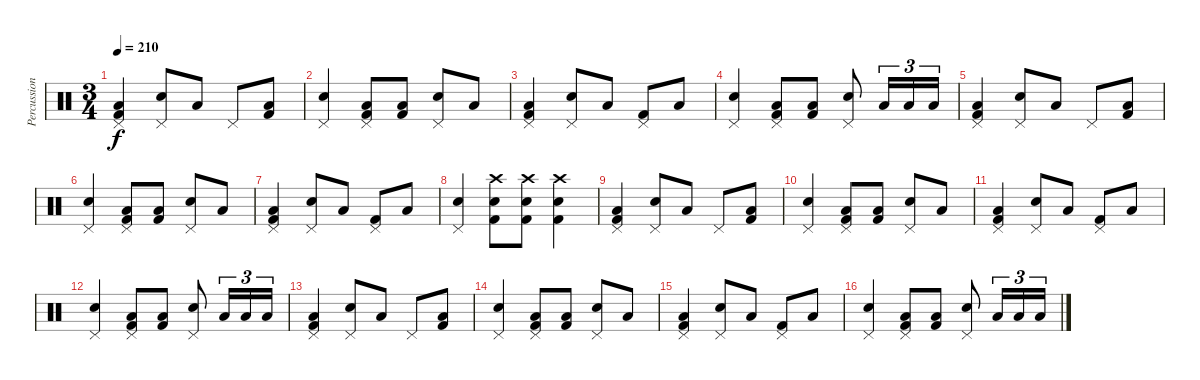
\track ("Percussion" "Percussion") {instrument percussion}
\staff
\articulation defaults
\ts (3 4)
\tempo 210
\clef neutral
\ks c
("Pedal Hi-Hat (hit)" "Low Floor Tom (hit)" "Kick (hit) 2").4{dy f} ("Pedal Hi-Hat (hit)" "Electric Snare (hit)").8 "Low Floor Tom (hit)".8 "Pedal Hi-Hat (hit)".8 ("Low Floor Tom (hit)" "Kick (hit) 2").8 |
("Pedal Hi-Hat (hit)" "Electric Snare (hit)").4 ("Pedal Hi-Hat (hit)" "Low Floor Tom (hit)" "Kick (hit) 2").8 ("Low Floor Tom (hit)" "Kick (hit) 2").8 ("Pedal Hi-Hat (hit)" "Electric Snare (hit)").8 "Low Floor Tom (hit)".8 |
("Pedal Hi-Hat (hit)" "Low Floor Tom (hit)" "Kick (hit) 2").4 ("Pedal Hi-Hat (hit)" "Electric Snare (hit)").8 "Low Floor Tom (hit)".8 ("Pedal Hi-Hat (hit)" "Kick (hit) 2").8 "Low Floor Tom (hit)".8 |
("Pedal Hi-Hat (hit)" "Electric Snare (hit)").4 ("Pedal Hi-Hat (hit)" "Low Floor Tom (hit)" "Kick (hit) 2").8 ("Low Floor Tom (hit)" "Kick (hit) 2").8 ("Pedal Hi-Hat (hit)" "Electric Snare (hit)").8 "Low Floor Tom (hit)".16{tu (3 2)} "Low Floor Tom (hit)".16{tu (3 2)} "Low Floor Tom (hit)".16{tu (3 2)} |
("Pedal Hi-Hat (hit)" "Low Floor Tom (hit)" "Kick (hit) 2").4 ("Pedal Hi-Hat (hit)" "Electric Snare (hit)").8 "Low Floor Tom (hit)".8 "Pedal Hi-Hat (hit)".8 ("Low Floor Tom (hit)" "Kick (hit) 2").8 |
("Pedal Hi-Hat (hit)" "Electric Snare (hit)").4 ("Pedal Hi-Hat (hit)" "Low Floor Tom (hit)" "Kick (hit) 2").8 ("Low Floor Tom (hit)" "Kick (hit) 2").8 ("Pedal Hi-Hat (hit)" "Electric Snare (hit)").8 "Low Floor Tom (hit)".8 |
("Pedal Hi-Hat (hit)" "Low Floor Tom (hit)" "Kick (hit) 2").4 ("Pedal Hi-Hat (hit)" "Electric Snare (hit)").8 "Low Floor Tom (hit)".8 ("Pedal Hi-Hat (hit)" "Kick (hit) 2").8 "Low Floor Tom (hit)".8 |
("Pedal Hi-Hat (hit)" "Electric Snare (hit)").4 ("Crash high (hit)" "Electric Snare (hit)" "Kick (hit) 2").8 ("Crash high (hit)" "Electric Snare (hit)" "Kick (hit) 2").8 ("Crash high (hit)" "Electric Snare (hit)" "Kick (hit) 2").4 |
("Pedal Hi-Hat (hit)" "Low Floor Tom (hit)" "Kick (hit) 2").4 ("Pedal Hi-Hat (hit)" "Electric Snare (hit)").8 "Low Floor Tom (hit)".8 "Pedal Hi-Hat (hit)".8 ("Low Floor Tom (hit)" "Kick (hit) 2").8 |
("Pedal Hi-Hat (hit)" "Electric Snare (hit)").4 ("Pedal Hi-Hat (hit)" "Low Floor Tom (hit)" "Kick (hit) 2").8 ("Low Floor Tom (hit)" "Kick (hit) 2").8 ("Pedal Hi-Hat (hit)" "Electric Snare (hit)").8 "Low Floor Tom (hit)".8 |
("Pedal Hi-Hat (hit)" "Low Floor Tom (hit)" "Kick (hit) 2").4 ("Pedal Hi-Hat (hit)" "Electric Snare (hit)").8 "Low Floor Tom (hit)".8 ("Pedal Hi-Hat (hit)" "Kick (hit) 2").8 "Low Floor Tom (hit)".8 |
("Pedal Hi-Hat (hit)" "Electric Snare (hit)").4 ("Pedal Hi-Hat (hit)" "Low Floor Tom (hit)" "Kick (hit) 2").8 ("Low Floor Tom (hit)" "Kick (hit) 2").8 ("Pedal Hi-Hat (hit)" "Electric Snare (hit)").8 "Low Floor Tom (hit)".16{tu (3 2)} "Low Floor Tom (hit)".16{tu (3 2)} "Low Floor Tom (hit)".16{tu (3 2)} |
("Pedal Hi-Hat (hit)" "Low Floor Tom (hit)" "Kick (hit) 2").4 ("Pedal Hi-Hat (hit)" "Electric Snare (hit)").8 "Low Floor Tom (hit)".8 "Pedal Hi-Hat (hit)".8 ("Low Floor Tom (hit)" "Kick (hit) 2").8 |
("Pedal Hi-Hat (hit)" "Electric Snare (hit)").4 ("Pedal Hi-Hat (hit)" "Low Floor Tom (hit)" "Kick (hit) 2").8 ("Low Floor Tom (hit)" "Kick (hit) 2").8 ("Pedal Hi-Hat (hit)" "Electric Snare (hit)").8 "Low Floor Tom (hit)".8 |
("Pedal Hi-Hat (hit)" "Low Floor Tom (hit)" "Kick (hit) 2").4 ("Pedal Hi-Hat (hit)" "Electric Snare (hit)").8 "Low Floor Tom (hit)".8 ("Pedal Hi-Hat (hit)" "Kick (hit) 2").8 "Low Floor Tom (hit)".8 |
("Pedal Hi-Hat (hit)" "Electric Snare (hit)").4 ("Pedal Hi-Hat (hit)" "Low Floor Tom (hit)" "Kick (hit) 2").8 ("Low Floor Tom (hit)" "Kick (hit) 2").8 ("Pedal Hi-Hat (hit)" "Electric Snare (hit)").8 "Low Floor Tom (hit)".16{tu (3 2)} "Low Floor Tom (hit)".16{tu (3 2)} "Low Floor Tom (hit)".16{tu (3 2)}
